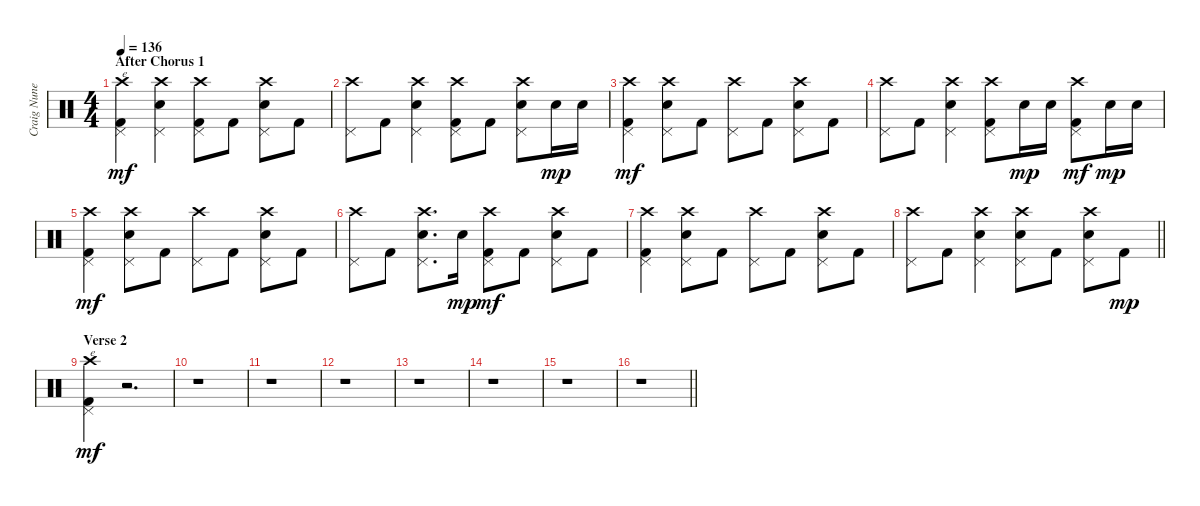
\track ("Craig Nunenmancher" "Craig Nune") {instrument percussion}
\staff {score}
\articulation defaults
\ts (4 4)
\section ("" "After Chorus 1")
\tempo 136
\clef neutral
\ks c
("Crash high (hit)" "Pedal Hi-Hat (hit)" "Kick (hit) 2").4{txt "e" dy mf} ("Crash high (hit)" "Pedal Hi-Hat (hit)" "Snare (hit) 2").4 ("Crash high (hit)" "Pedal Hi-Hat (hit)" "Kick (hit) 2").8 "Kick (hit) 2".8 ("Crash high (hit)" "Pedal Hi-Hat (hit)" "Snare (hit) 2").8 "Kick (hit) 2".8 |
("Crash high (hit)" "Pedal Hi-Hat (hit)").8 "Kick (hit) 2".8 ("Crash high (hit)" "Pedal Hi-Hat (hit)" "Snare (hit) 2").4 ("Crash high (hit)" "Pedal Hi-Hat (hit)" "Kick (hit) 2").8 "Kick (hit) 2".8 ("Crash high (hit)" "Pedal Hi-Hat (hit)" "Snare (hit) 2").8 "Snare (hit) 2".16{dy mp} "Snare (hit) 2".16 |
("Crash high (hit)" "Pedal Hi-Hat (hit)" "Kick (hit) 2").4{dy mf} ("Crash high (hit)" "Pedal Hi-Hat (hit)" "Snare (hit) 2").8 "Kick (hit) 2".8 ("Crash high (hit)" "Pedal Hi-Hat (hit)").8 "Kick (hit) 2".8 ("Crash high (hit)" "Pedal Hi-Hat (hit)" "Snare (hit) 2").8 "Kick (hit) 2".8 |
("Crash high (hit)" "Pedal Hi-Hat (hit)").8 "Kick (hit) 2".8 ("Crash high (hit)" "Pedal Hi-Hat (hit)" "Snare (hit) 2").4 ("Crash high (hit)" "Pedal Hi-Hat (hit)" "Kick (hit) 2").8 "Snare (hit) 2".16{dy mp} "Snare (hit) 2".16 ("Crash high (hit)" "Pedal Hi-Hat (hit)" "Kick (hit) 2").8{dy mf} "Snare (hit) 2".16{dy mp} "Snare (hit) 2".16 |
("Crash high (hit)" "Pedal Hi-Hat (hit)" "Kick (hit) 2").4{dy mf} ("Crash high (hit)" "Pedal Hi-Hat (hit)" "Snare (hit) 2").8 "Kick (hit) 2".8 ("Crash high (hit)" "Pedal Hi-Hat (hit)").8 "Kick (hit) 2".8 ("Crash high (hit)" "Pedal Hi-Hat (hit)" "Snare (hit) 2").8 "Kick (hit) 2".8 |
("Crash high (hit)" "Pedal Hi-Hat (hit)").8 "Kick (hit) 2".8 ("Crash high (hit)" "Pedal Hi-Hat (hit)" "Snare (hit) 2").8{d} "Snare (hit) 2".16{dy mp} ("Crash high (hit)" "Pedal Hi-Hat (hit)" "Kick (hit) 2").8{dy mf} "Kick (hit) 2".8 ("Crash high (hit)" "Pedal Hi-Hat (hit)" "Snare (hit) 2").8 "Kick (hit) 2".8 |
("Crash high (hit)" "Pedal Hi-Hat (hit)" "Kick (hit) 2").4 ("Crash high (hit)" "Pedal Hi-Hat (hit)" "Snare (hit) 2").8 "Kick (hit) 2".8 ("Crash high (hit)" "Pedal Hi-Hat (hit)").8 "Kick (hit) 2".8 ("Crash high (hit)" "Pedal Hi-Hat (hit)" "Snare (hit) 2").8 "Kick (hit) 2".8 |
\barLineRight lightlight
("Crash high (hit)" "Pedal Hi-Hat (hit)").8 "Kick (hit) 2".8 ("Crash high (hit)" "Pedal Hi-Hat (hit)" "Snare (hit) 2").4 ("Crash high (hit)" "Pedal Hi-Hat (hit)" "Snare (hit) 2").8 "Kick (hit) 2".8 ("Crash high (hit)" "Pedal Hi-Hat (hit)" "Snare (hit) 2").8 "Kick (hit) 2".8{dy mp} |
\section ("" "Verse 2")
("Crash high (hit)" "Pedal Hi-Hat (hit)" "Kick (hit) 2").4{txt "e" dy mf} r.2{d} |
r.1 |
r.1 |
r.1 |
r.1 |
r.1 |
r.1 |
\barLineRight lightlight
r.1
